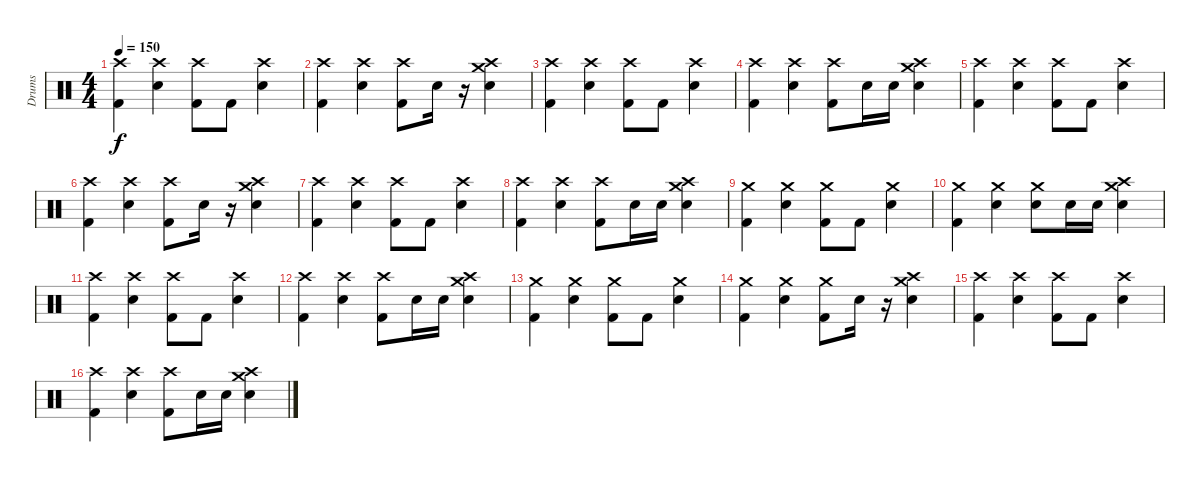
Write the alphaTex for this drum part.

\track ("Drums" "Drums") {instrument percussion}
\staff {score}
\articulation defaults
\ts (4 4)
\tempo 150
\clef neutral
\ks c
("Crash high (hit)" "Kick (hit) 2").4{dy f} ("Crash high (hit)" "Electric Snare (hit)").4 ("Crash high (hit)" "Kick (hit) 2").8 "Kick (hit) 2".8 ("Crash high (hit)" "Electric Snare (hit)").4 |
("Crash high (hit)" "Kick (hit) 2").4 ("Crash high (hit)" "Electric Snare (hit)").4 ("Crash high (hit)" "Kick (hit) 2").8 "Electric Snare (hit)".16 r.16 ("Crash medium (hit)" "Crash high (hit)" "Electric Snare (hit)").4 |
("Crash high (hit)" "Kick (hit) 2").4 ("Crash high (hit)" "Electric Snare (hit)").4 ("Crash high (hit)" "Kick (hit) 2").8 "Kick (hit) 2".8 ("Crash high (hit)" "Electric Snare (hit)").4 |
("Crash high (hit)" "Kick (hit) 2").4 ("Crash high (hit)" "Electric Snare (hit)").4 ("Crash high (hit)" "Kick (hit) 2").8 "Electric Snare (hit)".16 "Electric Snare (hit)".16 ("Crash medium (hit)" "Crash high (hit)" "Electric Snare (hit)").4 |
("Crash high (hit)" "Kick (hit) 2").4 ("Crash high (hit)" "Electric Snare (hit)").4 ("Crash high (hit)" "Kick (hit) 2").8 "Kick (hit) 2".8 ("Crash high (hit)" "Electric Snare (hit)").4 |
("Crash high (hit)" "Kick (hit) 2").4 ("Crash high (hit)" "Electric Snare (hit)").4 ("Crash high (hit)" "Kick (hit) 2").8 "Electric Snare (hit)".16 r.16 ("Crash medium (hit)" "Crash high (hit)" "Electric Snare (hit)").4 |
("Crash high (hit)" "Kick (hit) 2").4 ("Crash high (hit)" "Electric Snare (hit)").4 ("Crash high (hit)" "Kick (hit) 2").8 "Kick (hit) 2".8 ("Crash high (hit)" "Electric Snare (hit)").4 |
("Crash high (hit)" "Kick (hit) 2").4 ("Crash high (hit)" "Electric Snare (hit)").4 ("Crash high (hit)" "Kick (hit) 2").8 "Electric Snare (hit)".16 "Electric Snare (hit)".16 ("Crash medium (hit)" "Crash high (hit)" "Electric Snare (hit)").4 |
("Crash medium (hit)" "Kick (hit) 2").4 ("Crash medium (hit)" "Electric Snare (hit)").4 ("Crash medium (hit)" "Kick (hit) 2").8 "Kick (hit) 2".8 ("Crash medium (hit)" "Electric Snare (hit)").4 |
("Crash medium (hit)" "Kick (hit) 2").4 ("Crash medium (hit)" "Electric Snare (hit)").4 ("Crash medium (hit)" "Electric Snare (hit)").8 "Electric Snare (hit)".16 "Electric Snare (hit)".16 ("Crash high (hit)" "Crash medium (hit)" "Electric Snare (hit)").4 |
("Crash high (hit)" "Kick (hit) 2").4 ("Crash high (hit)" "Electric Snare (hit)").4 ("Crash high (hit)" "Kick (hit) 2").8 "Kick (hit) 2".8 ("Crash high (hit)" "Electric Snare (hit)").4 |
("Crash high (hit)" "Kick (hit) 2").4 ("Crash high (hit)" "Electric Snare (hit)").4 ("Crash high (hit)" "Kick (hit) 2").8 "Electric Snare (hit)".16 "Electric Snare (hit)".16 ("Crash medium (hit)" "Crash high (hit)" "Electric Snare (hit)").4 |
("Crash medium (hit)" "Kick (hit) 2").4 ("Crash medium (hit)" "Electric Snare (hit)").4 ("Crash medium (hit)" "Kick (hit) 2").8 "Kick (hit) 2".8 ("Crash medium (hit)" "Electric Snare (hit)").4 |
("Crash medium (hit)" "Kick (hit) 2").4 ("Crash medium (hit)" "Electric Snare (hit)").4 ("Crash medium (hit)" "Kick (hit) 2").8 "Electric Snare (hit)".16 r.16 ("Crash high (hit)" "Crash medium (hit)" "Electric Snare (hit)").4 |
("Crash high (hit)" "Kick (hit) 2").4 ("Crash high (hit)" "Electric Snare (hit)").4 ("Crash high (hit)" "Kick (hit) 2").8 "Kick (hit) 2".8 ("Crash high (hit)" "Electric Snare (hit)").4 |
("Crash high (hit)" "Kick (hit) 2").4 ("Crash high (hit)" "Electric Snare (hit)").4 ("Crash high (hit)" "Kick (hit) 2").8 "Electric Snare (hit)".16 "Electric Snare (hit)".16 ("Crash high (hit)" "Crash medium (hit)" "Electric Snare (hit)").4
